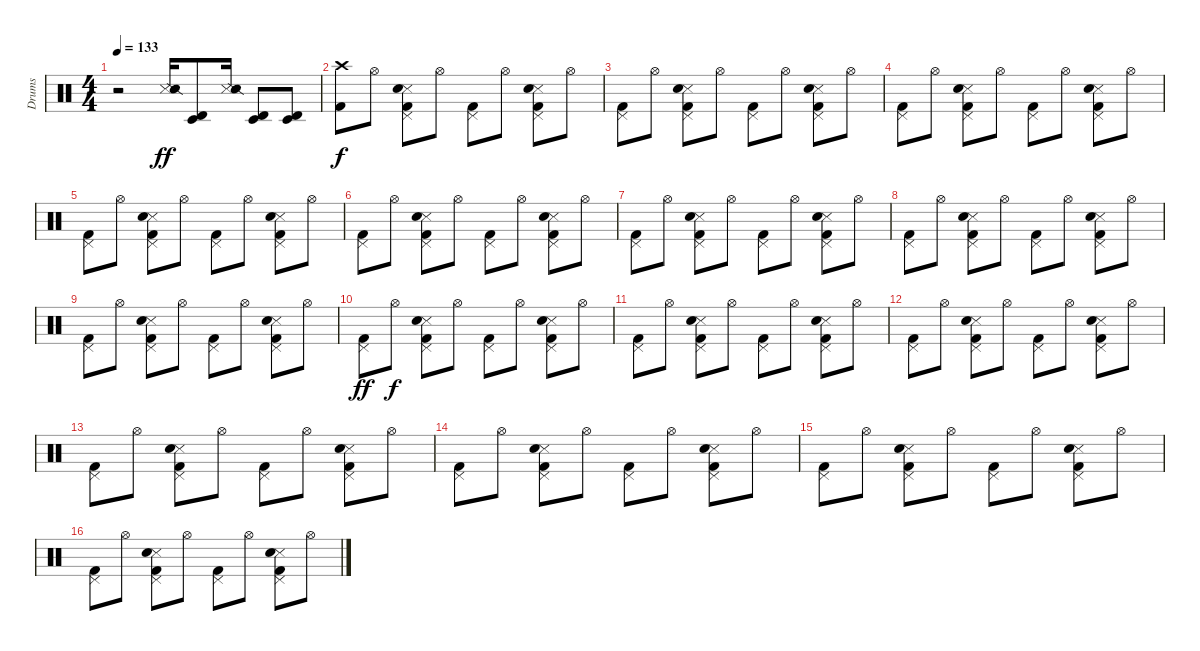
\track ("Drums" "Drums") {instrument percussion}
\staff {score}
\articulation defaults
\ts (4 4)
\tempo 133
\clef neutral
\ks c
r.2{dy ff} ("Snare (side stick) 3" "Snare (side stick) 2").16 ("Timbale low (hit)" "Timbale high (hit)").8 ("Snare (side stick) 3" "Snare (side stick) 2").16 ("Timbale low (hit)" "Timbale high (hit)").8 ("Timbale low (hit)" "Timbale high (hit)").8 |
("Crash high (hit)" "Kick (hit) 2").8{dy f} "Hi-Hat (open)".8 ("Snare (side stick) 3" "Hand Clap (hit)" "Pedal Hi-Hat (hit)" "Kick (hit) 2").8 "Hi-Hat (open)".8 ("Pedal Hi-Hat (hit)" "Kick (hit) 2").8 "Hi-Hat (open)".8 ("Snare (side stick) 3" "Hand Clap (hit)" "Pedal Hi-Hat (hit)" "Kick (hit) 2").8 "Hi-Hat (open)".8 |
("Pedal Hi-Hat (hit)" "Kick (hit) 2").8 "Hi-Hat (open)".8 ("Snare (side stick) 3" "Hand Clap (hit)" "Pedal Hi-Hat (hit)" "Kick (hit) 2").8 "Hi-Hat (open)".8 ("Pedal Hi-Hat (hit)" "Kick (hit) 2").8 "Hi-Hat (open)".8 ("Snare (side stick) 3" "Hand Clap (hit)" "Pedal Hi-Hat (hit)" "Kick (hit) 2").8 "Hi-Hat (open)".8 |
("Pedal Hi-Hat (hit)" "Kick (hit) 2").8 "Hi-Hat (open)".8 ("Snare (side stick) 3" "Hand Clap (hit)" "Pedal Hi-Hat (hit)" "Kick (hit) 2").8 "Hi-Hat (open)".8 ("Pedal Hi-Hat (hit)" "Kick (hit) 2").8 "Hi-Hat (open)".8 ("Snare (side stick) 3" "Hand Clap (hit)" "Pedal Hi-Hat (hit)" "Kick (hit) 2").8 "Hi-Hat (open)".8 |
("Pedal Hi-Hat (hit)" "Kick (hit) 2").8 "Hi-Hat (open)".8 ("Snare (side stick) 3" "Hand Clap (hit)" "Pedal Hi-Hat (hit)" "Kick (hit) 2").8 "Hi-Hat (open)".8 ("Pedal Hi-Hat (hit)" "Kick (hit) 2").8 "Hi-Hat (open)".8 ("Snare (side stick) 3" "Hand Clap (hit)" "Pedal Hi-Hat (hit)" "Kick (hit) 2").8 "Hi-Hat (open)".8 |
("Pedal Hi-Hat (hit)" "Kick (hit) 2").8 "Hi-Hat (open)".8 ("Snare (side stick) 3" "Hand Clap (hit)" "Pedal Hi-Hat (hit)" "Kick (hit) 2").8 "Hi-Hat (open)".8 ("Pedal Hi-Hat (hit)" "Kick (hit) 2").8 "Hi-Hat (open)".8 ("Snare (side stick) 3" "Hand Clap (hit)" "Pedal Hi-Hat (hit)" "Kick (hit) 2").8 "Hi-Hat (open)".8 |
("Pedal Hi-Hat (hit)" "Kick (hit) 2").8 "Hi-Hat (open)".8 ("Snare (side stick) 3" "Hand Clap (hit)" "Pedal Hi-Hat (hit)" "Kick (hit) 2").8 "Hi-Hat (open)".8 ("Pedal Hi-Hat (hit)" "Kick (hit) 2").8 "Hi-Hat (open)".8 ("Snare (side stick) 3" "Hand Clap (hit)" "Pedal Hi-Hat (hit)" "Kick (hit) 2").8 "Hi-Hat (open)".8 |
("Pedal Hi-Hat (hit)" "Kick (hit) 2").8 "Hi-Hat (open)".8 ("Snare (side stick) 3" "Hand Clap (hit)" "Pedal Hi-Hat (hit)" "Kick (hit) 2").8 "Hi-Hat (open)".8 ("Pedal Hi-Hat (hit)" "Kick (hit) 2").8 "Hi-Hat (open)".8 ("Snare (side stick) 3" "Hand Clap (hit)" "Pedal Hi-Hat (hit)" "Kick (hit) 2").8 "Hi-Hat (open)".8 |
("Pedal Hi-Hat (hit)" "Kick (hit) 2").8 "Hi-Hat (open)".8 ("Snare (side stick) 3" "Hand Clap (hit)" "Pedal Hi-Hat (hit)" "Kick (hit) 2").8 "Hi-Hat (open)".8 ("Pedal Hi-Hat (hit)" "Kick (hit) 2").8 "Hi-Hat (open)".8 ("Snare (side stick) 3" "Hand Clap (hit)" "Pedal Hi-Hat (hit)" "Kick (hit) 2").8 "Hi-Hat (open)".8 |
("Pedal Hi-Hat (hit)" "Kick (hit) 2").8{dy ff} "Hi-Hat (open)".8{dy f} ("Snare (side stick) 3" "Hand Clap (hit)" "Pedal Hi-Hat (hit)" "Kick (hit) 2").8 "Hi-Hat (open)".8 ("Pedal Hi-Hat (hit)" "Kick (hit) 2").8 "Hi-Hat (open)".8 ("Snare (side stick) 3" "Hand Clap (hit)" "Pedal Hi-Hat (hit)" "Kick (hit) 2").8 "Hi-Hat (open)".8 |
("Pedal Hi-Hat (hit)" "Kick (hit) 2").8 "Hi-Hat (open)".8 ("Snare (side stick) 3" "Hand Clap (hit)" "Pedal Hi-Hat (hit)" "Kick (hit) 2").8 "Hi-Hat (open)".8 ("Pedal Hi-Hat (hit)" "Kick (hit) 2").8 "Hi-Hat (open)".8 ("Snare (side stick) 3" "Hand Clap (hit)" "Pedal Hi-Hat (hit)" "Kick (hit) 2").8 "Hi-Hat (open)".8 |
("Pedal Hi-Hat (hit)" "Kick (hit) 2").8 "Hi-Hat (open)".8 ("Snare (side stick) 3" "Hand Clap (hit)" "Pedal Hi-Hat (hit)" "Kick (hit) 2").8 "Hi-Hat (open)".8 ("Pedal Hi-Hat (hit)" "Kick (hit) 2").8 "Hi-Hat (open)".8 ("Snare (side stick) 3" "Hand Clap (hit)" "Pedal Hi-Hat (hit)" "Kick (hit) 2").8 "Hi-Hat (open)".8 |
("Pedal Hi-Hat (hit)" "Kick (hit) 2").8 "Hi-Hat (open)".8 ("Snare (side stick) 3" "Hand Clap (hit)" "Pedal Hi-Hat (hit)" "Kick (hit) 2").8 "Hi-Hat (open)".8 ("Pedal Hi-Hat (hit)" "Kick (hit) 2").8 "Hi-Hat (open)".8 ("Snare (side stick) 3" "Hand Clap (hit)" "Pedal Hi-Hat (hit)" "Kick (hit) 2").8 "Hi-Hat (open)".8 |
("Pedal Hi-Hat (hit)" "Kick (hit) 2").8 "Hi-Hat (open)".8 ("Snare (side stick) 3" "Hand Clap (hit)" "Pedal Hi-Hat (hit)" "Kick (hit) 2").8 "Hi-Hat (open)".8 ("Pedal Hi-Hat (hit)" "Kick (hit) 2").8 "Hi-Hat (open)".8 ("Snare (side stick) 3" "Hand Clap (hit)" "Pedal Hi-Hat (hit)" "Kick (hit) 2").8 "Hi-Hat (open)".8 |
("Pedal Hi-Hat (hit)" "Kick (hit) 2").8 "Hi-Hat (open)".8 ("Snare (side stick) 3" "Hand Clap (hit)" "Pedal Hi-Hat (hit)" "Kick (hit) 2").8 "Hi-Hat (open)".8 ("Pedal Hi-Hat (hit)" "Kick (hit) 2").8 "Hi-Hat (open)".8 ("Snare (side stick) 3" "Hand Clap (hit)" "Pedal Hi-Hat (hit)" "Kick (hit) 2").8 "Hi-Hat (open)".8 |
("Pedal Hi-Hat (hit)" "Kick (hit) 2").8 "Hi-Hat (open)".8 ("Snare (side stick) 3" "Hand Clap (hit)" "Pedal Hi-Hat (hit)" "Kick (hit) 2").8 "Hi-Hat (open)".8 ("Pedal Hi-Hat (hit)" "Kick (hit) 2").8 "Hi-Hat (open)".8 ("Snare (side stick) 3" "Hand Clap (hit)" "Pedal Hi-Hat (hit)" "Kick (hit) 2").8 "Hi-Hat (open)".8
